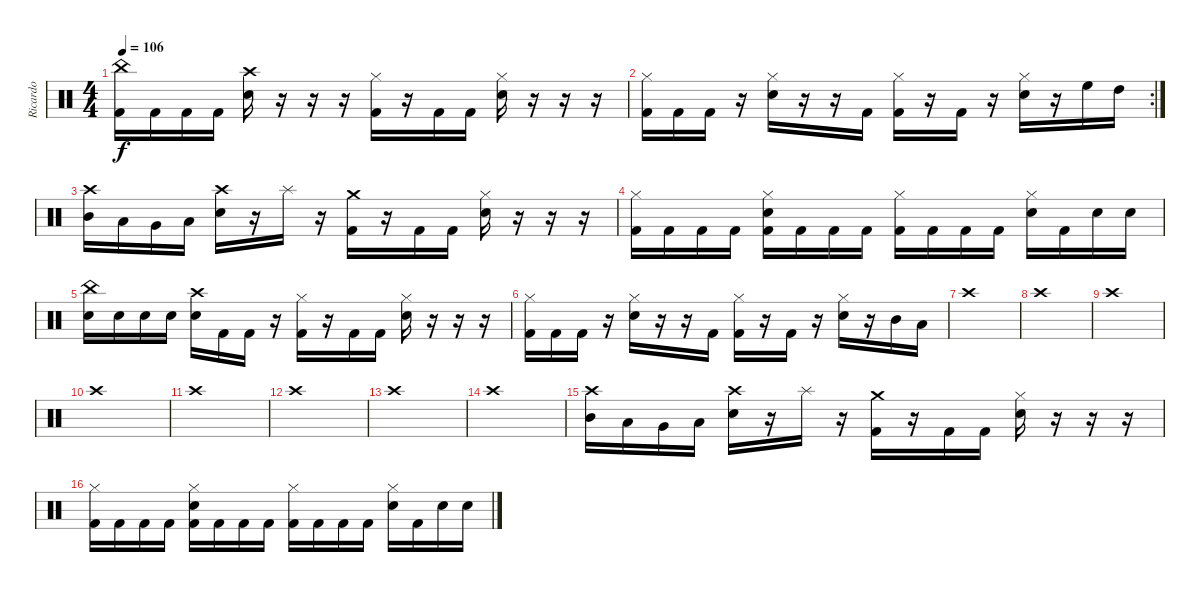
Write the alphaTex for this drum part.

\track ("Ricardo" "Ricardo") {instrument percussion}
\staff {score}
\articulation defaults
\ts (4 4)
\tempo 106
\clef neutral
\ks c
("China (hit)" "Kick (hit) 2").16{dy f} "Kick (hit) 2".16 "Kick (hit) 2".16 "Kick (hit) 2".16 ("Crash high (hit)" "Electric Snare (hit)").16 r.16 r.16 r.16 ("Hi-Hat (closed)" "Kick (hit) 2").16 r.16 "Kick (hit) 2".16 "Kick (hit) 2".16 ("Hi-Hat (closed)" "Electric Snare (hit)").16 r.16 r.16 r.16 |
\rc 2
("Hi-Hat (closed)" "Kick (hit) 2").16 "Kick (hit) 2".16 "Kick (hit) 2".16 r.16 ("Hi-Hat (closed)" "Electric Snare (hit)").16 r.16 r.16 "Kick (hit) 2".16 ("Hi-Hat (closed)" "Kick (hit) 2").16 r.16 "Kick (hit) 2".16 r.16 ("Hi-Hat (closed)" "Electric Snare (hit)").16 r.16 "High Floor Tom (hit)".16 "High Tom (hit)".16 |
("Crash high (hit)" "Mid Tom (hit)").16 "Low Tom (hit)".16 "Very Low Tom (hit)".16 "Low Floor Tom (hit)".16 ("Crash high (hit)" "Electric Snare (hit)").16 r.16 "Splash (hit)".16 r.16 ("Crash medium (hit)" "Kick (hit) 2").16 r.16 "Kick (hit) 2".16 "Kick (hit) 2".16 ("Hi-Hat (closed)" "Electric Snare (hit)").16 r.16 r.16 r.16 |
("Hi-Hat (closed)" "Kick (hit) 2").16 "Kick (hit) 2".16 "Kick (hit) 2".16 "Kick (hit) 2".16 ("Hi-Hat (closed)" "Electric Snare (hit)" "Kick (hit) 2").16 "Kick (hit) 2".16 "Kick (hit) 2".16 "Kick (hit) 2".16 ("Hi-Hat (closed)" "Kick (hit) 2").16 "Kick (hit) 2".16 "Kick (hit) 2".16 "Kick (hit) 2".16 ("Hi-Hat (closed)" "Electric Snare (hit)").16 "Kick (hit) 2".16 "Snare (hit) 2".16 "Snare (hit) 2".16 |
("China (hit)" "Electric Snare (hit)").16 "Electric Snare (hit)".16 "Electric Snare (hit)".16 "Electric Snare (hit)".16 ("Crash high (hit)" "Electric Snare (hit)").16 "Kick (hit) 2".16 "Kick (hit) 2".16 r.16 ("Hi-Hat (closed)" "Kick (hit) 2").16 r.16 "Kick (hit) 2".16 "Kick (hit) 2".16 ("Hi-Hat (closed)" "Electric Snare (hit)").16 r.16 r.16 r.16 |
("Hi-Hat (closed)" "Kick (hit) 2").16 "Kick (hit) 2".16 "Kick (hit) 2".16 r.16 ("Hi-Hat (closed)" "Electric Snare (hit)").16 r.16 r.16 "Kick (hit) 2".16 ("Hi-Hat (closed)" "Kick (hit) 2").16 r.16 "Kick (hit) 2".16 r.16 ("Hi-Hat (closed)" "Electric Snare (hit)").16 r.16 "Mid Tom (hit)".16 "Low Tom (hit)".16 |
"Crash high (hit)".1 |
"Crash high (hit)".1 |
"Crash high (hit)".1 |
"Crash high (hit)".1 |
"Crash high (hit)".1 |
"Crash high (hit)".1 |
"Crash high (hit)".1 |
"Crash high (hit)".1 |
("Crash high (hit)" "Mid Tom (hit)").16 "Low Tom (hit)".16 "Very Low Tom (hit)".16 "Low Floor Tom (hit)".16 ("Crash high (hit)" "Electric Snare (hit)").16 r.16 "Splash (hit)".16 r.16 ("Crash medium (hit)" "Kick (hit) 2").16 r.16 "Kick (hit) 2".16 "Kick (hit) 2".16 ("Hi-Hat (closed)" "Electric Snare (hit)").16 r.16 r.16 r.16 |
("Hi-Hat (closed)" "Kick (hit) 2").16 "Kick (hit) 2".16 "Kick (hit) 2".16 "Kick (hit) 2".16 ("Hi-Hat (closed)" "Electric Snare (hit)" "Kick (hit) 2").16 "Kick (hit) 2".16 "Kick (hit) 2".16 "Kick (hit) 2".16 ("Hi-Hat (closed)" "Kick (hit) 2").16 "Kick (hit) 2".16 "Kick (hit) 2".16 "Kick (hit) 2".16 ("Hi-Hat (closed)" "Electric Snare (hit)").16 "Kick (hit) 2".16 "Snare (hit) 2".16 "Snare (hit) 2".16
